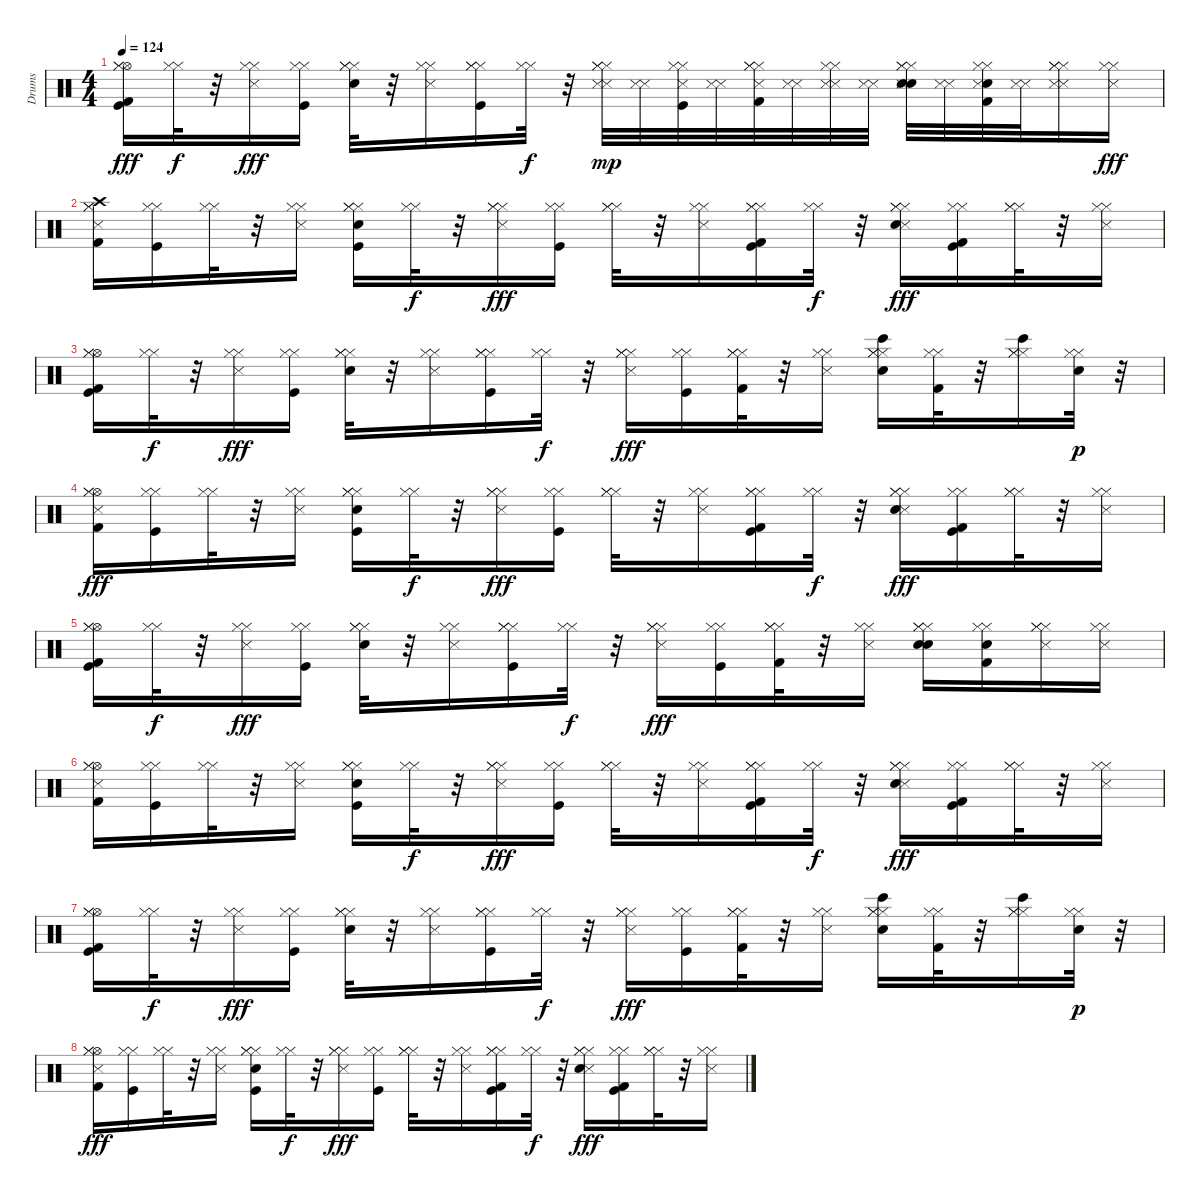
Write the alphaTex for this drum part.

\track ("Drums" "Drums") {instrument percussion}
\staff {score}
\articulation defaults
\ts (4 4)
\tempo 124
\clef neutral
\ks c
("Kick (hit)" "Kick (hit) 2" "Hi-Hat (open)" "Hi-Hat (closed)" "Hi-Hat (closed)").16{dy fff} ("Hi-Hat (closed)" "Hi-Hat (closed)").32{dy f} r.32 ("Metronome (hit)" "Hi-Hat (closed)" "Hi-Hat (closed)").16{dy fff} ("Kick (hit)" "Hi-Hat (closed)" "Hi-Hat (closed)").16 ("Hi-Hat (closed)" "Electric Snare (hit)" "Hi-Hat (closed)" "Hi-Hat (closed)").32 r.32 ("Metronome (hit)" "Hi-Hat (closed)" "Hi-Hat (closed)").16 ("Kick (hit)" "Hi-Hat (closed)" "Hi-Hat (closed)" "Hi-Hat (closed)").16 ("Hi-Hat (closed)" "Hi-Hat (closed)").32{dy f} r.32 ("Metronome (hit)" "Hi-Hat (closed)" "Hi-Hat (closed)" "Hi-Hat (closed)" "Snare (side stick) 3").32{dy mp} ("Snare (side stick) 3" "Snare (side stick) 3").32 ("Kick (hit)" "Hi-Hat (closed)" "Hi-Hat (closed)" "Snare (side stick) 3").32 ("Snare (side stick) 3" "Snare (side stick) 3").32 ("Kick (hit) 2" "Hi-Hat (closed)" "Hi-Hat (closed)" "Hi-Hat (closed)" "Snare (side stick) 3").32 ("Snare (side stick) 3" "Snare (side stick) 3").32 ("Metronome (hit)" "Hi-Hat (closed)" "Hi-Hat (closed)" "Snare (side stick) 3").32 ("Snare (side stick) 3" "Snare (side stick) 3").32 ("Hand Clap (hit)" "Hi-Hat (closed)" "Electric Snare (hit)" "Hi-Hat (closed)" "Hi-Hat (closed)" "Snare (side stick) 3").32 ("Snare (side stick) 3" "Snare (side stick) 3").32 ("Hand Clap (hit)" "Kick (hit) 2" "Hi-Hat (closed)" "Hi-Hat (closed)" "Snare (side stick) 3").32 ("Snare (side stick) 3" "Snare (side stick) 3").32 ("Snare (side stick) 3" "Hi-Hat (closed)" "Hi-Hat (closed)" "Hi-Hat (closed)" "Snare (side stick) 3").16 ("Snare (side stick) 3" "Hi-Hat (closed)" "Hi-Hat (closed)").16{dy fff} |
("Metronome (hit)" "Crash high (hit)" "Kick (hit) 2" "Hi-Hat (closed)" "Hi-Hat (closed)").16 ("Kick (hit)" "Hi-Hat (closed)" "Hi-Hat (closed)").16 ("Hi-Hat (closed)" "Hi-Hat (closed)").32 r.32 ("Metronome (hit)" "Hi-Hat (closed)" "Hi-Hat (closed)").16 ("Kick (hit)" "Hi-Hat (closed)" "Electric Snare (hit)" "Hi-Hat (closed)" "Hi-Hat (closed)").16 ("Hi-Hat (closed)" "Hi-Hat (closed)").32{dy f} r.32 ("Metronome (hit)" "Hi-Hat (closed)" "Hi-Hat (closed)" "Hi-Hat (closed)").16{dy fff} ("Kick (hit)" "Hi-Hat (closed)" "Hi-Hat (closed)").16 ("Hi-Hat (closed)" "Hi-Hat (closed)" "Hi-Hat (closed)").32 r.32 ("Metronome (hit)" "Hi-Hat (closed)" "Hi-Hat (closed)").16 ("Kick (hit)" "Hi-Hat (closed)" "Kick (hit) 2" "Hi-Hat (closed)" "Hi-Hat (closed)").16 ("Hi-Hat (closed)" "Hi-Hat (closed)").32{dy f} r.32 ("Metronome (hit)" "Hi-Hat (closed)" "Electric Snare (hit)" "Hi-Hat (closed)" "Hi-Hat (closed)").16{dy fff} ("Kick (hit)" "Kick (hit) 2" "Hi-Hat (closed)" "Hi-Hat (closed)").16 ("Hi-Hat (closed)" "Hi-Hat (closed)" "Hi-Hat (closed)").32 r.32 ("Metronome (hit)" "Hi-Hat (closed)" "Hi-Hat (closed)").16 |
("Kick (hit)" "Hi-Hat (open)" "Kick (hit) 2" "Hi-Hat (closed)" "Hi-Hat (closed)").16 ("Hi-Hat (closed)" "Hi-Hat (closed)").32{dy f} r.32 ("Metronome (hit)" "Hi-Hat (closed)" "Hi-Hat (closed)").16{dy fff} ("Kick (hit)" "Hi-Hat (closed)" "Hi-Hat (closed)").16 ("Electric Snare (hit)" "Hi-Hat (closed)" "Hi-Hat (closed)" "Hi-Hat (closed)").32 r.32 ("Metronome (hit)" "Hi-Hat (closed)" "Hi-Hat (closed)").16 ("Kick (hit)" "Hi-Hat (closed)" "Hi-Hat (closed)" "Hi-Hat (closed)").16 ("Hi-Hat (closed)" "Hi-Hat (closed)").32{dy f} r.32 ("Metronome (hit)" "Hi-Hat (closed)" "Hi-Hat (closed)" "Hi-Hat (closed)").16{dy fff} ("Kick (hit)" "Hi-Hat (closed)" "Hi-Hat (closed)").16 ("Hi-Hat (closed)" "Kick (hit) 2" "Hi-Hat (closed)" "Hi-Hat (closed)").32 r.32 ("Metronome (hit)" "Hi-Hat (closed)" "Hi-Hat (closed)").16 ("Bongo High (hit)" "Electric Snare (hit)" "Hi-Hat (closed)" "Hi-Hat (closed)" "Hi-Hat (closed)").16 ("Kick (hit) 2" "Hi-Hat (closed)" "Hi-Hat (closed)").32 r.32 ("Bongo High (hit)" "Hi-Hat (closed)" "Hi-Hat (closed)" "Hi-Hat (closed)").16 ("Hi-Hat (closed)" "Hi-Hat (closed)" "Electric Snare (hit)").32{dy p} r.32 |
("Metronome (hit)" "Kick (hit) 2" "Hi-Hat (open)" "Hi-Hat (closed)" "Hi-Hat (closed)").16{dy fff} ("Kick (hit)" "Hi-Hat (closed)" "Hi-Hat (closed)").16 ("Hi-Hat (closed)" "Hi-Hat (closed)").32 r.32 ("Metronome (hit)" "Hi-Hat (closed)" "Hi-Hat (closed)").16 ("Kick (hit)" "Electric Snare (hit)" "Hi-Hat (closed)" "Hi-Hat (closed)" "Hi-Hat (closed)").16 ("Hi-Hat (closed)" "Hi-Hat (closed)").32{dy f} r.32 ("Metronome (hit)" "Hi-Hat (closed)" "Hi-Hat (closed)" "Hi-Hat (closed)").16{dy fff} ("Kick (hit)" "Hi-Hat (closed)" "Hi-Hat (closed)").16 ("Hi-Hat (closed)" "Hi-Hat (closed)" "Hi-Hat (closed)").32 r.32 ("Metronome (hit)" "Hi-Hat (closed)" "Hi-Hat (closed)").16 ("Kick (hit)" "Kick (hit) 2" "Hi-Hat (closed)" "Hi-Hat (closed)" "Hi-Hat (closed)").16 ("Hi-Hat (closed)" "Hi-Hat (closed)").32{dy f} r.32 ("Metronome (hit)" "Electric Snare (hit)" "Hi-Hat (closed)" "Hi-Hat (closed)" "Hi-Hat (closed)").16{dy fff} ("Kick (hit)" "Kick (hit) 2" "Hi-Hat (closed)" "Hi-Hat (closed)").16 ("Hi-Hat (closed)" "Hi-Hat (closed)" "Hi-Hat (closed)").32 r.32 ("Metronome (hit)" "Hi-Hat (closed)" "Hi-Hat (closed)").16 |
("Kick (hit)" "Kick (hit) 2" "Hi-Hat (open)" "Hi-Hat (closed)" "Hi-Hat (closed)").16 ("Hi-Hat (closed)" "Hi-Hat (closed)").32{dy f} r.32 ("Metronome (hit)" "Hi-Hat (closed)" "Hi-Hat (closed)").16{dy fff} ("Kick (hit)" "Hi-Hat (closed)" "Hi-Hat (closed)").16 ("Hi-Hat (closed)" "Electric Snare (hit)" "Hi-Hat (closed)" "Hi-Hat (closed)").32 r.32 ("Metronome (hit)" "Hi-Hat (closed)" "Hi-Hat (closed)").16 ("Kick (hit)" "Hi-Hat (closed)" "Hi-Hat (closed)" "Hi-Hat (closed)").16 ("Hi-Hat (closed)" "Hi-Hat (closed)").32{dy f} r.32 ("Metronome (hit)" "Hi-Hat (closed)" "Hi-Hat (closed)" "Hi-Hat (closed)").16{dy fff} ("Kick (hit)" "Hi-Hat (closed)" "Hi-Hat (closed)").16 ("Kick (hit) 2" "Hi-Hat (closed)" "Hi-Hat (closed)" "Hi-Hat (closed)").32 r.32 ("Metronome (hit)" "Hi-Hat (closed)" "Hi-Hat (closed)").16 ("Hand Clap (hit)" "Hi-Hat (closed)" "Electric Snare (hit)" "Hi-Hat (closed)" "Hi-Hat (closed)").16 ("Hand Clap (hit)" "Kick (hit) 2" "Hi-Hat (closed)" "Hi-Hat (closed)").16 ("Snare (side stick) 3" "Hi-Hat (closed)" "Hi-Hat (closed)" "Hi-Hat (closed)").16 ("Snare (side stick) 3" "Hi-Hat (closed)" "Hi-Hat (closed)").16 |
("Metronome (hit)" "Kick (hit) 2" "Hi-Hat (open)" "Hi-Hat (closed)" "Hi-Hat (closed)").16 ("Kick (hit)" "Hi-Hat (closed)" "Hi-Hat (closed)").16 ("Hi-Hat (closed)" "Hi-Hat (closed)").32 r.32 ("Metronome (hit)" "Hi-Hat (closed)" "Hi-Hat (closed)").16 ("Kick (hit)" "Hi-Hat (closed)" "Electric Snare (hit)" "Hi-Hat (closed)" "Hi-Hat (closed)").16 ("Hi-Hat (closed)" "Hi-Hat (closed)").32{dy f} r.32 ("Metronome (hit)" "Hi-Hat (closed)" "Hi-Hat (closed)" "Hi-Hat (closed)").16{dy fff} ("Kick (hit)" "Hi-Hat (closed)" "Hi-Hat (closed)").16 ("Hi-Hat (closed)" "Hi-Hat (closed)" "Hi-Hat (closed)").32 r.32 ("Metronome (hit)" "Hi-Hat (closed)" "Hi-Hat (closed)").16 ("Kick (hit)" "Hi-Hat (closed)" "Kick (hit) 2" "Hi-Hat (closed)" "Hi-Hat (closed)").16 ("Hi-Hat (closed)" "Hi-Hat (closed)").32{dy f} r.32 ("Metronome (hit)" "Hi-Hat (closed)" "Electric Snare (hit)" "Hi-Hat (closed)" "Hi-Hat (closed)").16{dy fff} ("Kick (hit)" "Kick (hit) 2" "Hi-Hat (closed)" "Hi-Hat (closed)").16 ("Hi-Hat (closed)" "Hi-Hat (closed)" "Hi-Hat (closed)").32 r.32 ("Metronome (hit)" "Hi-Hat (closed)" "Hi-Hat (closed)").16 |
("Kick (hit)" "Hi-Hat (open)" "Kick (hit) 2" "Hi-Hat (closed)" "Hi-Hat (closed)").16 ("Hi-Hat (closed)" "Hi-Hat (closed)").32{dy f} r.32 ("Metronome (hit)" "Hi-Hat (closed)" "Hi-Hat (closed)").16{dy fff} ("Kick (hit)" "Hi-Hat (closed)" "Hi-Hat (closed)").16 ("Electric Snare (hit)" "Hi-Hat (closed)" "Hi-Hat (closed)" "Hi-Hat (closed)").32 r.32 ("Metronome (hit)" "Hi-Hat (closed)" "Hi-Hat (closed)").16 ("Kick (hit)" "Hi-Hat (closed)" "Hi-Hat (closed)" "Hi-Hat (closed)").16 ("Hi-Hat (closed)" "Hi-Hat (closed)").32{dy f} r.32 ("Metronome (hit)" "Hi-Hat (closed)" "Hi-Hat (closed)" "Hi-Hat (closed)").16{dy fff} ("Kick (hit)" "Hi-Hat (closed)" "Hi-Hat (closed)").16 ("Hi-Hat (closed)" "Kick (hit) 2" "Hi-Hat (closed)" "Hi-Hat (closed)").32 r.32 ("Metronome (hit)" "Hi-Hat (closed)" "Hi-Hat (closed)").16 ("Bongo High (hit)" "Electric Snare (hit)" "Hi-Hat (closed)" "Hi-Hat (closed)" "Hi-Hat (closed)").16 ("Kick (hit) 2" "Hi-Hat (closed)" "Hi-Hat (closed)").32 r.32 ("Bongo High (hit)" "Hi-Hat (closed)" "Hi-Hat (closed)" "Hi-Hat (closed)").16 ("Hi-Hat (closed)" "Hi-Hat (closed)" "Electric Snare (hit)").32{dy p} r.32 |
("Metronome (hit)" "Kick (hit) 2" "Hi-Hat (open)" "Hi-Hat (closed)" "Hi-Hat (closed)").16{dy fff} ("Kick (hit)" "Hi-Hat (closed)" "Hi-Hat (closed)").16 ("Hi-Hat (closed)" "Hi-Hat (closed)").32 r.32 ("Metronome (hit)" "Hi-Hat (closed)" "Hi-Hat (closed)").16 ("Kick (hit)" "Electric Snare (hit)" "Hi-Hat (closed)" "Hi-Hat (closed)" "Hi-Hat (closed)").16 ("Hi-Hat (closed)" "Hi-Hat (closed)").32{dy f} r.32 ("Metronome (hit)" "Hi-Hat (closed)" "Hi-Hat (closed)" "Hi-Hat (closed)").16{dy fff} ("Kick (hit)" "Hi-Hat (closed)" "Hi-Hat (closed)").16 ("Hi-Hat (closed)" "Hi-Hat (closed)" "Hi-Hat (closed)").32 r.32 ("Metronome (hit)" "Hi-Hat (closed)" "Hi-Hat (closed)").16 ("Kick (hit)" "Kick (hit) 2" "Hi-Hat (closed)" "Hi-Hat (closed)" "Hi-Hat (closed)").16 ("Hi-Hat (closed)" "Hi-Hat (closed)").32{dy f} r.32 ("Metronome (hit)" "Electric Snare (hit)" "Hi-Hat (closed)" "Hi-Hat (closed)" "Hi-Hat (closed)").16{dy fff} ("Kick (hit)" "Kick (hit) 2" "Hi-Hat (closed)" "Hi-Hat (closed)").16 ("Hi-Hat (closed)" "Hi-Hat (closed)" "Hi-Hat (closed)").32 r.32 ("Metronome (hit)" "Hi-Hat (closed)" "Hi-Hat (closed)").16
